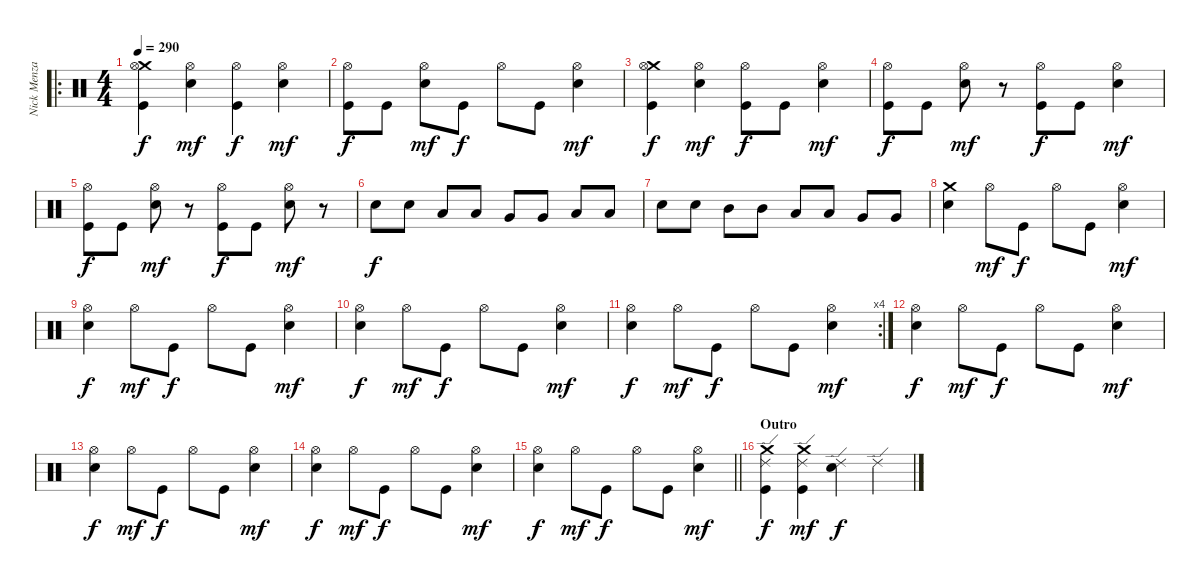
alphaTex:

\track ("Nick Menza" "Nick Menza") {instrument percussion}
\staff {score}
\articulation defaults
\ro
\ts (4 4)
\tempo 290
\clef neutral
\ks c
("Crash medium (hit)" "Hi-Hat (open)" "Kick (hit)").4{dy f} ("Hi-Hat (open)" "Snare (hit) 2").4{dy mf} ("Hi-Hat (open)" "Kick (hit)").4{dy f} ("Hi-Hat (open)" "Snare (hit) 2").4{dy mf} |
("Hi-Hat (open)" "Kick (hit)").8{dy f} "Kick (hit)".8 ("Hi-Hat (open)" "Snare (hit) 2").8{dy mf} "Kick (hit)".8{dy f} "Hi-Hat (open)".8 "Kick (hit)".8 ("Hi-Hat (open)" "Snare (hit) 2").4{dy mf} |
("Crash medium (hit)" "Hi-Hat (open)" "Kick (hit)").4{dy f} ("Hi-Hat (open)" "Snare (hit) 2").4{dy mf} ("Hi-Hat (open)" "Kick (hit)").8{dy f} "Kick (hit)".8 ("Hi-Hat (open)" "Snare (hit) 2").4{dy mf} |
("Hi-Hat (open)" "Kick (hit)").8{dy f} "Kick (hit)".8 ("Hi-Hat (open)" "Snare (hit) 2").8{dy mf} r.8 ("Hi-Hat (open)" "Kick (hit)").8{dy f} "Kick (hit)".8 ("Hi-Hat (open)" "Snare (hit) 2").4{dy mf} |
("Hi-Hat (open)" "Kick (hit)").8{dy f} "Kick (hit)".8 ("Hi-Hat (open)" "Snare (hit) 2").8{dy mf} r.8 ("Hi-Hat (open)" "Kick (hit)").8{dy f} "Kick (hit)".8 ("Hi-Hat (open)" "Snare (hit) 2").8{dy mf} r.8 |
"Snare (hit) 2".8{dy f} "Snare (hit) 2".8 "Low Tom (hit)".8 "Low Tom (hit)".8 "Very Low Tom (hit)".8 "Very Low Tom (hit)".8 "Low Floor Tom (hit)".8 "Low Floor Tom (hit)".8 |
"Snare (hit) 2".8 "Snare (hit) 2".8 "Mid Tom (hit)".8 "Mid Tom (hit)".8 "Low Tom (hit)".8 "Low Tom (hit)".8 "Very Low Tom (hit)".8 "Very Low Tom (hit)".8 |
("Crash medium (hit)" "Snare (hit) 2").4 "Hi-Hat (open)".8{dy mf} "Kick (hit)".8{dy f} "Hi-Hat (open)".8 "Kick (hit)".8 ("Hi-Hat (open)" "Snare (hit) 2").4{dy mf} |
("Hi-Hat (open)" "Snare (hit) 2").4{dy f} "Hi-Hat (open)".8{dy mf} "Kick (hit)".8{dy f} "Hi-Hat (open)".8 "Kick (hit)".8 ("Hi-Hat (open)" "Snare (hit) 2").4{dy mf} |
("Hi-Hat (open)" "Snare (hit) 2").4{dy f} "Hi-Hat (open)".8{dy mf} "Kick (hit)".8{dy f} "Hi-Hat (open)".8 "Kick (hit)".8 ("Hi-Hat (open)" "Snare (hit) 2").4{dy mf} |
\rc 4
("Hi-Hat (open)" "Snare (hit) 2").4{dy f} "Hi-Hat (open)".8{dy mf} "Kick (hit)".8{dy f} "Hi-Hat (open)".8 "Kick (hit)".8 ("Hi-Hat (open)" "Snare (hit) 2").4{dy mf} |
("Hi-Hat (open)" "Snare (hit) 2").4{dy f} "Hi-Hat (open)".8{dy mf} "Kick (hit)".8{dy f} "Hi-Hat (open)".8 "Kick (hit)".8 ("Hi-Hat (open)" "Snare (hit) 2").4{dy mf} |
("Hi-Hat (open)" "Snare (hit) 2").4{dy f} "Hi-Hat (open)".8{dy mf} "Kick (hit)".8{dy f} "Hi-Hat (open)".8 "Kick (hit)".8 ("Hi-Hat (open)" "Snare (hit) 2").4{dy mf} |
("Hi-Hat (open)" "Snare (hit) 2").4{dy f} "Hi-Hat (open)".8{dy mf} "Kick (hit)".8{dy f} "Hi-Hat (open)".8 "Kick (hit)".8 ("Hi-Hat (open)" "Snare (hit) 2").4{dy mf} |
\barLineRight lightlight
("Hi-Hat (open)" "Snare (hit) 2").4{dy f} "Hi-Hat (open)".8{dy mf} "Kick (hit)".8{dy f} "Hi-Hat (open)".8 "Kick (hit)".8 ("Hi-Hat (open)" "Snare (hit) 2").4{dy mf} |
\section ("" "Outro")
("Crash medium (hit)" "Ride (edge) 2" "Kick (hit)").4{dy f} ("Crash medium (hit)" "Ride (edge) 2" "Kick (hit)").4{dy mf} ("Ride (edge) 2" "Snare (hit) 2").4{dy f} "Ride (edge) 2".4
